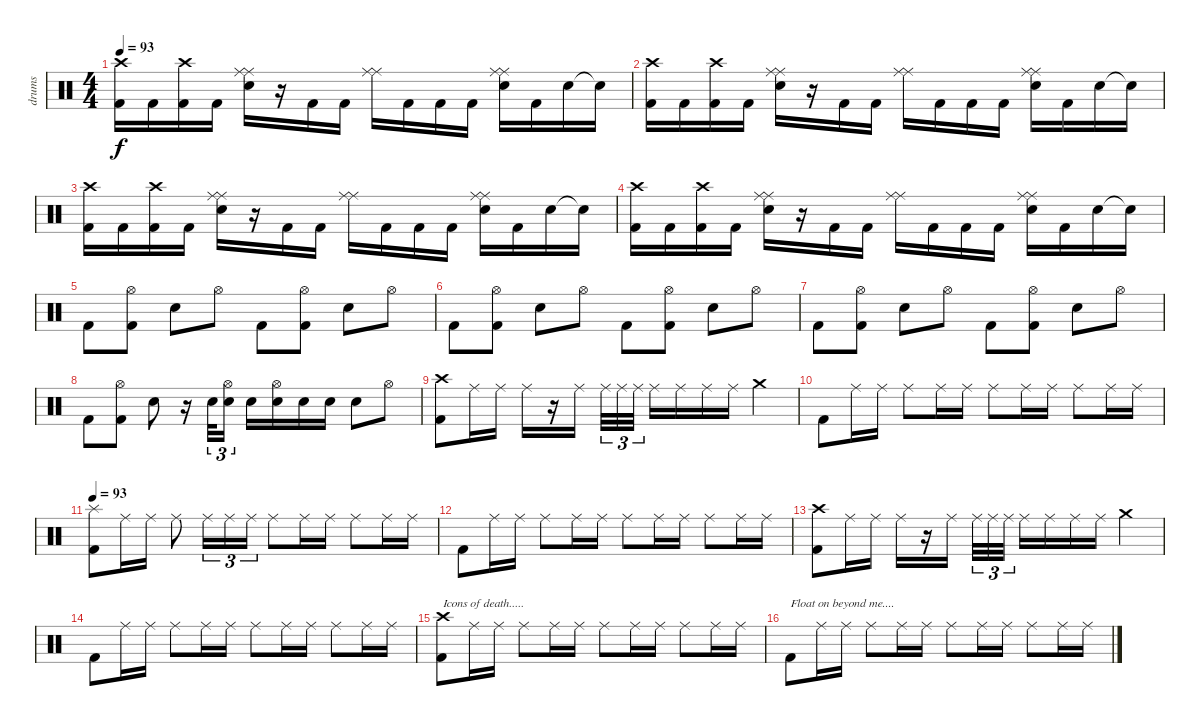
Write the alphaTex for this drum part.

\track ("drums" "drums") {instrument percussion}
\staff {score}
\articulation defaults
\ts (4 4)
\tempo 93
\clef neutral
\ks c
("Crash high (hit)" "Kick (hit) 2").16{dy f} "Kick (hit) 2".16 ("Crash high (hit)" "Kick (hit) 2").16 "Kick (hit) 2".16 ("Ride (middle)" "Ride (middle)" "Electric Snare (hit)").16 r.16 "Kick (hit) 2".16 "Kick (hit) 2".16 ("Ride (middle)" "Ride (middle)").16 "Kick (hit) 2".16 "Kick (hit) 2".16 "Kick (hit) 2".16 ("Ride (middle)" "Ride (middle)" "Electric Snare (hit)").16 "Kick (hit) 2".16 "Electric Snare (hit)".16 "Snare (hit)"{t}.16 |
("Crash high (hit)" "Kick (hit) 2").16 "Kick (hit) 2".16 ("Crash high (hit)" "Kick (hit) 2").16 "Kick (hit) 2".16 ("Ride (middle)" "Ride (middle)" "Electric Snare (hit)").16 r.16 "Kick (hit) 2".16 "Kick (hit) 2".16 ("Ride (middle)" "Ride (middle)").16 "Kick (hit) 2".16 "Kick (hit) 2".16 "Kick (hit) 2".16 ("Ride (middle)" "Ride (middle)" "Electric Snare (hit)").16 "Kick (hit) 2".16 "Electric Snare (hit)".16 "Snare (hit)"{t}.16 |
("Crash high (hit)" "Kick (hit) 2").16 "Kick (hit) 2".16 ("Crash high (hit)" "Kick (hit) 2").16 "Kick (hit) 2".16 ("Ride (middle)" "Ride (middle)" "Electric Snare (hit)").16 r.16 "Kick (hit) 2".16 "Kick (hit) 2".16 ("Ride (middle)" "Ride (middle)").16 "Kick (hit) 2".16 "Kick (hit) 2".16 "Kick (hit) 2".16 ("Ride (middle)" "Ride (middle)" "Electric Snare (hit)").16 "Kick (hit) 2".16 "Electric Snare (hit)".16 "Snare (hit)"{t}.16 |
("Crash high (hit)" "Kick (hit) 2").16 "Kick (hit) 2".16 ("Crash high (hit)" "Kick (hit) 2").16 "Kick (hit) 2".16 ("Ride (middle)" "Ride (middle)" "Electric Snare (hit)").16 r.16 "Kick (hit) 2".16 "Kick (hit) 2".16 ("Ride (middle)" "Ride (middle)").16 "Kick (hit) 2".16 "Kick (hit) 2".16 "Kick (hit) 2".16 ("Ride (middle)" "Ride (middle)" "Electric Snare (hit)").16 "Kick (hit) 2".16 "Electric Snare (hit)".16 "Snare (hit)"{t}.16 |
"Kick (hit) 2".8 ("Hi-Hat (open)" "Kick (hit) 2").8 "Electric Snare (hit)".8 "Hi-Hat (open)".8 "Kick (hit) 2".8 ("Hi-Hat (open)" "Kick (hit) 2").8 "Electric Snare (hit)".8 "Hi-Hat (open)".8 |
"Kick (hit) 2".8 ("Hi-Hat (open)" "Kick (hit) 2").8 "Electric Snare (hit)".8 "Hi-Hat (open)".8 "Kick (hit) 2".8 ("Hi-Hat (open)" "Kick (hit) 2").8 "Electric Snare (hit)".8 "Hi-Hat (open)".8 |
"Kick (hit) 2".8 ("Hi-Hat (open)" "Kick (hit) 2").8 "Electric Snare (hit)".8 "Hi-Hat (open)".8 "Kick (hit) 2".8 ("Hi-Hat (open)" "Kick (hit) 2").8 "Electric Snare (hit)".8 "Hi-Hat (open)".8 |
"Kick (hit) 2".8 ("Hi-Hat (open)" "Kick (hit) 2").8 "Electric Snare (hit)".8 r.16 "Electric Snare (hit)".32{tu (3 2)} ("Hi-Hat (open)" "Electric Snare (hit)").16{tu (3 2)} "Electric Snare (hit)".16 ("Hi-Hat (open)" "Electric Snare (hit)").16 "Electric Snare (hit)".16 "Electric Snare (hit)".16 "Electric Snare (hit)".8 "Hi-Hat (open)".8 |
("Crash high (hit)" "Kick (hit) 2").8 "Ride (middle)".16 "Ride (middle)".16 "Ride (middle)".16 r.16 "Ride (middle)".16 "Ride (middle)".32{tu (3 2)} "Ride (middle)".32{tu (3 2)} "Ride (middle)".32{tu (3 2)} "Ride (middle)".16 "Ride (middle)".16 "Ride (middle)".16 "Ride (middle)".16 "Crash medium (hit)".4 |
"Kick (hit) 2".8 "Ride (middle)".16 "Ride (middle)".16 "Ride (middle)".8 "Ride (middle)".16 "Ride (middle)".16 "Ride (middle)".8 "Ride (middle)".16 "Ride (middle)".16 "Ride (middle)".8 "Ride (middle)".16 "Ride (middle)".16 |
\tempo 93
("Splash (hit)" "Kick (hit) 2").8 "Ride (middle)".16 "Ride (middle)".16 "Ride (middle)".8 "Ride (middle)".16{tu (3 2)} "Ride (middle)".16{tu (3 2)} "Ride (middle)".16{tu (3 2)} "Ride (middle)".8 "Ride (middle)".16 "Ride (middle)".16 "Ride (middle)".8 "Ride (middle)".16 "Ride (middle)".16 |
"Kick (hit) 2".8 "Ride (middle)".16 "Ride (middle)".16 "Ride (middle)".8 "Ride (middle)".16 "Ride (middle)".16 "Ride (middle)".8 "Ride (middle)".16 "Ride (middle)".16 "Ride (middle)".8 "Ride (middle)".16 "Ride (middle)".16 |
("Crash high (hit)" "Kick (hit) 2").8 "Ride (middle)".16 "Ride (middle)".16 "Ride (middle)".16 r.16 "Ride (middle)".16 "Ride (middle)".32{tu (3 2)} "Ride (middle)".32{tu (3 2)} "Ride (middle)".32{tu (3 2)} "Ride (middle)".16 "Ride (middle)".16 "Ride (middle)".16 "Ride (middle)".16 "Crash medium (hit)".4 |
"Kick (hit) 2".8 "Ride (middle)".16 "Ride (middle)".16 "Ride (middle)".8 "Ride (middle)".16 "Ride (middle)".16 "Ride (middle)".8 "Ride (middle)".16 "Ride (middle)".16 "Ride (middle)".8 "Ride (middle)".16 "Ride (middle)".16 |
("Crash high (hit)" "Kick (hit) 2").8{txt "Icons of death....."} "Ride (middle)".16 "Ride (middle)".16 "Ride (middle)".8 "Ride (middle)".16 "Ride (middle)".16 "Ride (middle)".8 "Ride (middle)".16 "Ride (middle)".16 "Ride (middle)".8 "Ride (middle)".16 "Ride (middle)".16 |
"Kick (hit) 2".8{txt "Float on beyond me...."} "Ride (middle)".16 "Ride (middle)".16 "Ride (middle)".8 "Ride (middle)".16 "Ride (middle)".16 "Ride (middle)".8 "Ride (middle)".16 "Ride (middle)".16 "Ride (middle)".8 "Ride (middle)".16 "Ride (middle)".16
